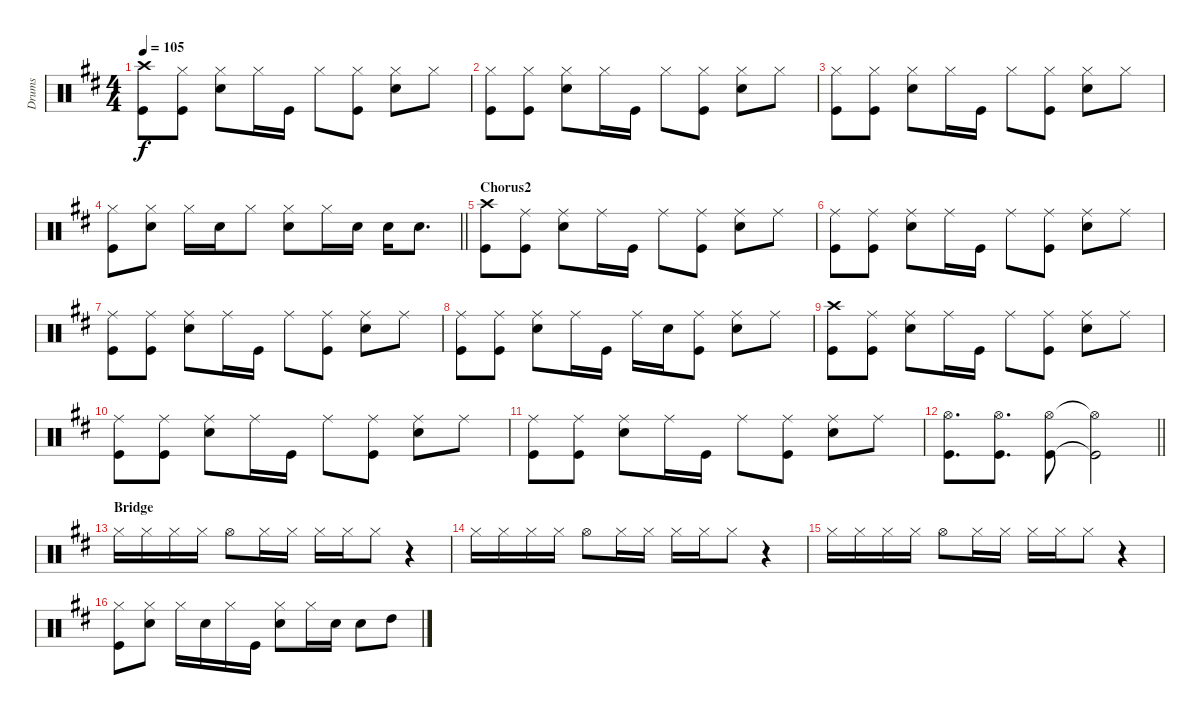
\track ("Drums" "Drums") {instrument percussion}
\staff {score}
\articulation defaults
\ts (4 4)
\tempo 105
\clef neutral
\ks d
("Crash high (hit)" "Kick (hit)").8{dy f} ("Hi-Hat (closed)" "Kick (hit)").8 ("Hi-Hat (closed)" "Snare (hit) 2").8 "Hi-Hat (closed)".16 "Kick (hit)".16 "Hi-Hat (closed)".8 ("Hi-Hat (closed)" "Kick (hit)").8 ("Hi-Hat (closed)" "Snare (hit) 2").8 "Hi-Hat (closed)".8 |
("Hi-Hat (closed)" "Kick (hit)").8 ("Hi-Hat (closed)" "Kick (hit)").8 ("Hi-Hat (closed)" "Snare (hit) 2").8 "Hi-Hat (closed)".16 "Kick (hit)".16 "Hi-Hat (closed)".8 ("Hi-Hat (closed)" "Kick (hit)").8 ("Hi-Hat (closed)" "Snare (hit) 2").8 "Hi-Hat (closed)".8 |
("Hi-Hat (closed)" "Kick (hit)").8 ("Hi-Hat (closed)" "Kick (hit)").8 ("Hi-Hat (closed)" "Snare (hit) 2").8 "Hi-Hat (closed)".16 "Kick (hit)".16 "Hi-Hat (closed)".8 ("Hi-Hat (closed)" "Kick (hit)").8 ("Hi-Hat (closed)" "Snare (hit) 2").8 "Hi-Hat (closed)".8 |
\barLineRight lightlight
("Hi-Hat (closed)" "Kick (hit)").8 ("Hi-Hat (closed)" "Snare (hit) 2").8 "Hi-Hat (closed)".16 "Snare (hit) 2".16 "Hi-Hat (closed)".8 ("Hi-Hat (closed)" "Snare (hit) 2").8 "Hi-Hat (closed)".16 "Snare (hit) 2".16 "Snare (hit) 2".16 "Snare (hit) 2".8{d} |
\section ("" "Chorus2")
("Crash high (hit)" "Kick (hit)").8 ("Ride (middle)" "Kick (hit)").8 ("Ride (middle)" "Snare (hit) 2").8 "Ride (middle)".16 "Kick (hit)".16 "Ride (middle)".8 ("Ride (middle)" "Kick (hit)").8 ("Ride (middle)" "Snare (hit) 2").8 "Ride (middle)".8 |
("Ride (middle)" "Kick (hit)").8 ("Ride (middle)" "Kick (hit)").8 ("Ride (middle)" "Snare (hit) 2").8 "Ride (middle)".16 "Kick (hit)".16 "Ride (middle)".8 ("Ride (middle)" "Kick (hit)").8 ("Ride (middle)" "Snare (hit) 2").8 "Ride (middle)".8 |
("Ride (middle)" "Kick (hit)").8 ("Ride (middle)" "Kick (hit)").8 ("Ride (middle)" "Snare (hit) 2").8 "Ride (middle)".16 "Kick (hit)".16 "Ride (middle)".8 ("Ride (middle)" "Kick (hit)").8 ("Ride (middle)" "Snare (hit) 2").8 "Ride (middle)".8 |
("Ride (middle)" "Kick (hit)").8 ("Ride (middle)" "Kick (hit)").8 ("Ride (middle)" "Snare (hit) 2").8 "Ride (middle)".16 "Kick (hit)".16 "Ride (middle)".16 "Snare (hit) 2".16 ("Ride (middle)" "Kick (hit)").8 ("Ride (middle)" "Snare (hit) 2").8 "Ride (middle)".8 |
("Crash high (hit)" "Kick (hit)").8 ("Ride (middle)" "Kick (hit)").8 ("Ride (middle)" "Snare (hit) 2").8 "Ride (middle)".16 "Kick (hit)".16 "Ride (middle)".8 ("Ride (middle)" "Kick (hit)").8 ("Ride (middle)" "Snare (hit) 2").8 "Ride (middle)".8 |
("Ride (middle)" "Kick (hit)").8 ("Ride (middle)" "Kick (hit)").8 ("Ride (middle)" "Snare (hit) 2").8 "Ride (middle)".16 "Kick (hit)".16 "Ride (middle)".8 ("Ride (middle)" "Kick (hit)").8 ("Ride (middle)" "Snare (hit) 2").8 "Ride (middle)".8 |
("Ride (middle)" "Kick (hit)").8 ("Ride (middle)" "Kick (hit)").8 ("Ride (middle)" "Snare (hit) 2").8 "Ride (middle)".16 "Kick (hit)".16 "Ride (middle)".8 ("Ride (middle)" "Kick (hit)").8 ("Ride (middle)" "Snare (hit) 2").8 "Ride (middle)".8 |
\barLineRight lightlight
("Hi-Hat (open)" "Kick (hit)").8{d} ("Kick (hit)" "Hi-Hat (open)").8{d} ("Kick (hit)" "Hi-Hat (open)").8 ("Kick (hit)"{t} "Hi-Hat (open)"{t}).2 |
\section ("" "Bridge")
"Hi-Hat (closed)".16 "Hi-Hat (closed)".16 "Hi-Hat (closed)".16 "Hi-Hat (closed)".16 "Hi-Hat (open)".8 "Hi-Hat (closed)".16 "Hi-Hat (closed)".16 "Hi-Hat (closed)".16 "Hi-Hat (closed)".16 "Hi-Hat (closed)".8 r.4 |
"Hi-Hat (closed)".16 "Hi-Hat (closed)".16 "Hi-Hat (closed)".16 "Hi-Hat (closed)".16 "Hi-Hat (open)".8 "Hi-Hat (closed)".16 "Hi-Hat (closed)".16 "Hi-Hat (closed)".16 "Hi-Hat (closed)".16 "Hi-Hat (closed)".8 r.4 |
"Hi-Hat (closed)".16 "Hi-Hat (closed)".16 "Hi-Hat (closed)".16 "Hi-Hat (closed)".16 "Hi-Hat (open)".8 "Hi-Hat (closed)".16 "Hi-Hat (closed)".16 "Hi-Hat (closed)".16 "Hi-Hat (closed)".16 "Hi-Hat (closed)".8 r.4 |
("Hi-Hat (closed)" "Kick (hit)").8 ("Hi-Hat (closed)" "Snare (hit) 2").8 "Hi-Hat (closed)".16 "Snare (hit) 2".16 "Hi-Hat (closed)".16 "Kick (hit)".16 ("Hi-Hat (closed)" "Snare (hit) 2").8 "Hi-Hat (closed)".16 "Snare (hit) 2".16 "Snare (hit) 2".8 "High Tom (hit)".8
